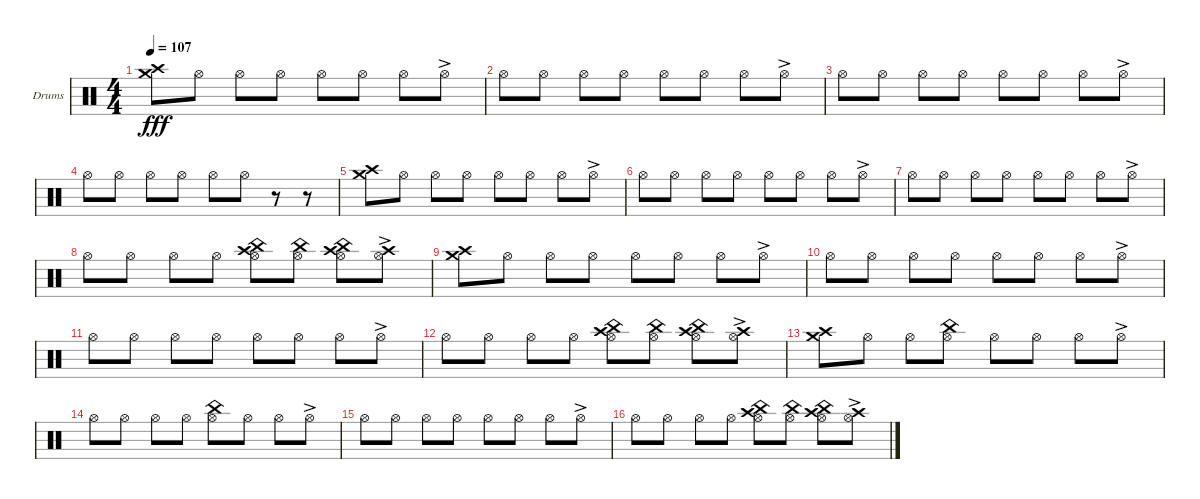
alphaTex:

\defaultSystemsLayout 4
\bracketExtendMode groupsimilarinstruments
\firstSystemTrackNameOrientation horizontal
\otherSystemsTrackNameOrientation horizontal
\track ("Helders" "Drums") {instrument percussion}
\staff {score}
\articulation defaults
\ts (4 4)
\tempo 107
\clef neutral
\ks c
("Crash medium (hit)" "Crash high (hit)").8{dy fff} "Hi-Hat (open)".8 "Hi-Hat (open)".8 "Hi-Hat (open)".8 "Hi-Hat (open)".8 "Hi-Hat (open)".8 "Hi-Hat (open)".8 "Hi-Hat (open)"{ac}.8 |
"Hi-Hat (open)".8 "Hi-Hat (open)".8 "Hi-Hat (open)".8 "Hi-Hat (open)".8 "Hi-Hat (open)".8 "Hi-Hat (open)".8 "Hi-Hat (open)".8 "Hi-Hat (open)"{ac}.8 |
"Hi-Hat (open)".8 "Hi-Hat (open)".8 "Hi-Hat (open)".8 "Hi-Hat (open)".8 "Hi-Hat (open)".8 "Hi-Hat (open)".8 "Hi-Hat (open)".8 "Hi-Hat (open)"{ac}.8 |
"Hi-Hat (open)".8 "Hi-Hat (open)".8 "Hi-Hat (open)".8 "Hi-Hat (open)".8 "Hi-Hat (open)".8 "Hi-Hat (open)".8 r.8 r.8 |
("Crash medium (hit)" "Crash high (hit)").8 "Hi-Hat (open)".8 "Hi-Hat (open)".8 "Hi-Hat (open)".8 "Hi-Hat (open)".8 "Hi-Hat (open)".8 "Hi-Hat (open)".8 "Hi-Hat (open)"{ac}.8 |
"Hi-Hat (open)".8 "Hi-Hat (open)".8 "Hi-Hat (open)".8 "Hi-Hat (open)".8 "Hi-Hat (open)".8 "Hi-Hat (open)".8 "Hi-Hat (open)".8 "Hi-Hat (open)"{ac}.8 |
"Hi-Hat (open)".8 "Hi-Hat (open)".8 "Hi-Hat (open)".8 "Hi-Hat (open)".8 "Hi-Hat (open)".8 "Hi-Hat (open)".8 "Hi-Hat (open)".8 "Hi-Hat (open)"{ac}.8 |
"Hi-Hat (open)".8 "Hi-Hat (open)".8 "Hi-Hat (open)".8 "Hi-Hat (open)".8 ("Hi-Hat (open)" "Crash high (hit)" "China (hit)").8 ("Hi-Hat (open)" "China (hit)").8 ("Hi-Hat (open)" "Crash high (hit)" "China (hit)").8 ("Hi-Hat (open)"{ac} "Crash high (hit)").8 |
("Crash medium (hit)" "Crash high (hit)").8 "Hi-Hat (open)".8 "Hi-Hat (open)".8 "Hi-Hat (open)".8 "Hi-Hat (open)".8 "Hi-Hat (open)".8 "Hi-Hat (open)".8 "Hi-Hat (open)"{ac}.8 |
"Hi-Hat (open)".8 "Hi-Hat (open)".8 "Hi-Hat (open)".8 "Hi-Hat (open)".8 "Hi-Hat (open)".8 "Hi-Hat (open)".8 "Hi-Hat (open)".8 "Hi-Hat (open)"{ac}.8 |
"Hi-Hat (open)".8 "Hi-Hat (open)".8 "Hi-Hat (open)".8 "Hi-Hat (open)".8 "Hi-Hat (open)".8 "Hi-Hat (open)".8 "Hi-Hat (open)".8 "Hi-Hat (open)"{ac}.8 |
"Hi-Hat (open)".8 "Hi-Hat (open)".8 "Hi-Hat (open)".8 "Hi-Hat (open)".8 ("Hi-Hat (open)" "Crash high (hit)" "China (hit)").8 ("Hi-Hat (open)" "China (hit)").8 ("Hi-Hat (open)" "Crash high (hit)" "China (hit)").8 ("Hi-Hat (open)"{ac} "Crash high (hit)").8 |
("Crash medium (hit)" "Crash high (hit)").8 "Hi-Hat (open)".8 "Hi-Hat (open)".8 ("Hi-Hat (open)" "China (hit)").8 "Hi-Hat (open)".8 "Hi-Hat (open)".8 "Hi-Hat (open)".8 "Hi-Hat (open)"{ac}.8 |
"Hi-Hat (open)".8 "Hi-Hat (open)".8 "Hi-Hat (open)".8 "Hi-Hat (open)".8 ("Hi-Hat (open)" "China (hit)").8 "Hi-Hat (open)".8 "Hi-Hat (open)".8 "Hi-Hat (open)"{ac}.8 |
"Hi-Hat (open)".8 "Hi-Hat (open)".8 "Hi-Hat (open)".8 "Hi-Hat (open)".8 "Hi-Hat (open)".8 "Hi-Hat (open)".8 "Hi-Hat (open)".8 "Hi-Hat (open)"{ac}.8 |
"Hi-Hat (open)".8 "Hi-Hat (open)".8 "Hi-Hat (open)".8 "Hi-Hat (open)".8 ("Hi-Hat (open)" "Crash high (hit)" "China (hit)").8 ("Hi-Hat (open)" "China (hit)").8 ("Hi-Hat (open)" "Crash high (hit)" "China (hit)").8 ("Hi-Hat (open)"{ac} "Crash high (hit)").8
